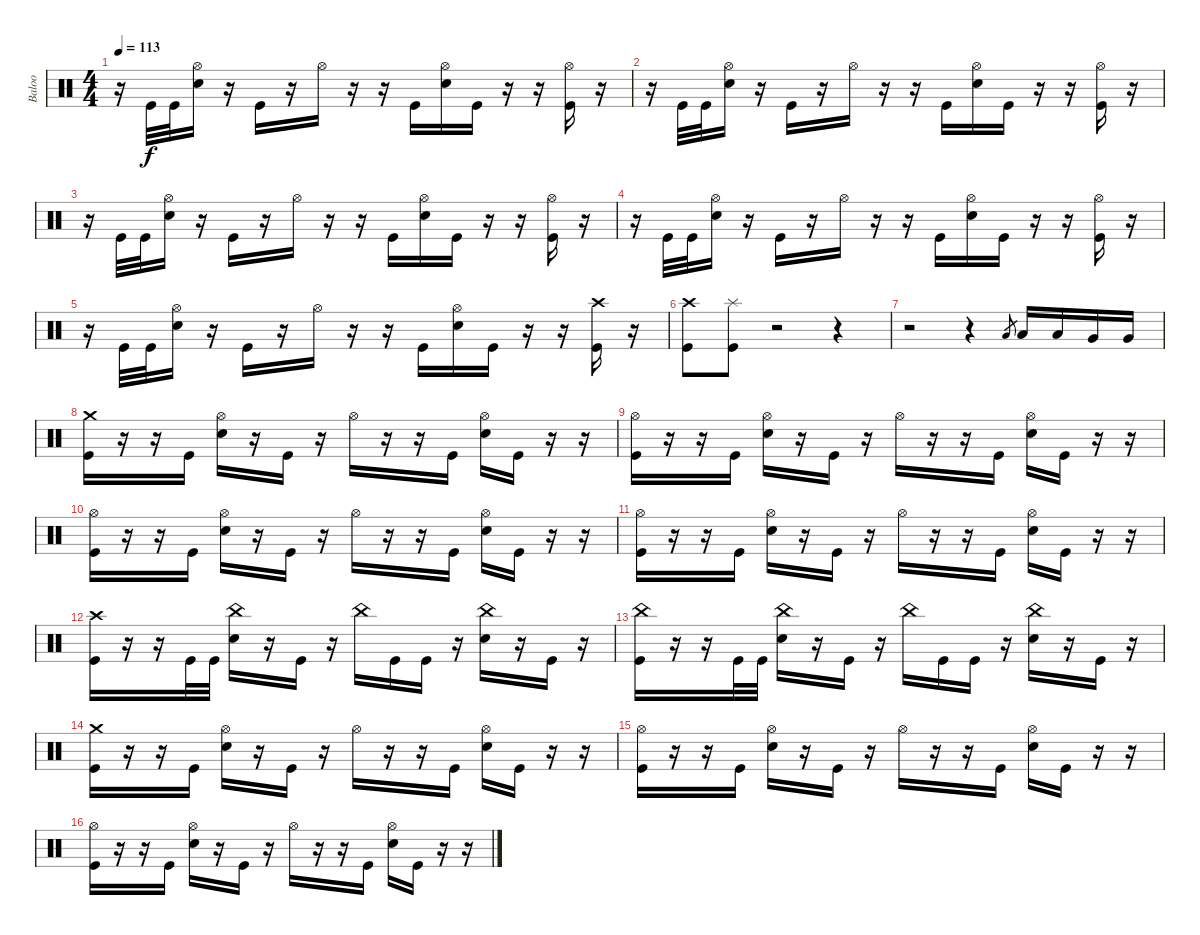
\track ("Baloo" "Baloo") {instrument percussion}
\staff {score}
\articulation defaults
\ts (4 4)
\tempo 113
\clef neutral
\ks c
r.16{dy f} "Kick (hit)".32 "Kick (hit)".32 ("Hi-Hat (open)" "Electric Snare (hit)").16 r.16 "Kick (hit)".16 r.16 "Hi-Hat (open)".16 r.16 r.16 "Kick (hit)".16 ("Hi-Hat (open)" "Electric Snare (hit)").16 "Kick (hit)".16 r.16 r.16 ("Hi-Hat (open)" "Kick (hit)").16 r.16 |
r.16 "Kick (hit)".32 "Kick (hit)".32 ("Hi-Hat (open)" "Electric Snare (hit)").16 r.16 "Kick (hit)".16 r.16 "Hi-Hat (open)".16 r.16 r.16 "Kick (hit)".16 ("Hi-Hat (open)" "Electric Snare (hit)").16 "Kick (hit)".16 r.16 r.16 ("Hi-Hat (open)" "Kick (hit)").16 r.16 |
r.16 "Kick (hit)".32 "Kick (hit)".32 ("Hi-Hat (open)" "Electric Snare (hit)").16 r.16 "Kick (hit)".16 r.16 "Hi-Hat (open)".16 r.16 r.16 "Kick (hit)".16 ("Hi-Hat (open)" "Electric Snare (hit)").16 "Kick (hit)".16 r.16 r.16 ("Hi-Hat (open)" "Kick (hit)").16 r.16 |
r.16 "Kick (hit)".32 "Kick (hit)".32 ("Hi-Hat (open)" "Electric Snare (hit)").16 r.16 "Kick (hit)".16 r.16 "Hi-Hat (open)".16 r.16 r.16 "Kick (hit)".16 ("Hi-Hat (open)" "Electric Snare (hit)").16 "Kick (hit)".16 r.16 r.16 ("Hi-Hat (open)" "Kick (hit)").16 r.16 |
r.16 "Kick (hit)".32 "Kick (hit)".32 ("Hi-Hat (open)" "Electric Snare (hit)").16 r.16 "Kick (hit)".16 r.16 "Hi-Hat (open)".16 r.16 r.16 "Kick (hit)".16 ("Hi-Hat (open)" "Electric Snare (hit)").16 "Kick (hit)".16 r.16 r.16 ("Crash high (hit)" "Kick (hit)").16 r.16 |
("Crash high (hit)" "Kick (hit)").8 ("Splash (hit)" "Kick (hit)").8 r.2 r.4 |
r.2 r.4 "Low Tom (hit)".8{gr} "Low Tom (hit)".16 "Low Tom (hit)".16 "Very Low Tom (hit)".16 "Very Low Tom (hit)".16 |
("Crash medium (hit)" "Kick (hit)").16 r.16 r.16 "Kick (hit)".16 ("Hi-Hat (open)" "Electric Snare (hit)").16 r.16 "Kick (hit)".16 r.16 "Hi-Hat (open)".16 r.16 r.16 "Kick (hit)".16 ("Hi-Hat (open)" "Electric Snare (hit)").16 "Kick (hit)".16 r.16 r.16 |
("Hi-Hat (open)" "Kick (hit)").16 r.16 r.16 "Kick (hit)".16 ("Hi-Hat (open)" "Electric Snare (hit)").16 r.16 "Kick (hit)".16 r.16 "Hi-Hat (open)".16 r.16 r.16 "Kick (hit)".16 ("Hi-Hat (open)" "Electric Snare (hit)").16 "Kick (hit)".16 r.16 r.16 |
("Hi-Hat (open)" "Kick (hit)").16 r.16 r.16 "Kick (hit)".16 ("Hi-Hat (open)" "Electric Snare (hit)").16 r.16 "Kick (hit)".16 r.16 "Hi-Hat (open)".16 r.16 r.16 "Kick (hit)".16 ("Hi-Hat (open)" "Electric Snare (hit)").16 "Kick (hit)".16 r.16 r.16 |
("Hi-Hat (open)" "Kick (hit)").16 r.16 r.16 "Kick (hit)".16 ("Hi-Hat (open)" "Electric Snare (hit)").16 r.16 "Kick (hit)".16 r.16 "Hi-Hat (open)".16 r.16 r.16 "Kick (hit)".16 ("Hi-Hat (open)" "Electric Snare (hit)").16 "Kick (hit)".16 r.16 r.16 |
("Crash high (hit)" "Kick (hit)").16 r.16 r.16 "Kick (hit)".32 "Kick (hit)".32 ("China (hit)" "Electric Snare (hit)").16 r.16 "Kick (hit)".16 r.16 "China (hit)".16 "Kick (hit)".16 "Kick (hit)".16 r.16 ("China (hit)" "Electric Snare (hit)").16 r.16 "Kick (hit)".16 r.16 |
("China (hit)" "Kick (hit)").16 r.16 r.16 "Kick (hit)".32 "Kick (hit)".32 ("China (hit)" "Electric Snare (hit)").16 r.16 "Kick (hit)".16 r.16 "China (hit)".16 "Kick (hit)".16 "Kick (hit)".16 r.16 ("China (hit)" "Electric Snare (hit)").16 r.16 "Kick (hit)".16 r.16 |
("Crash medium (hit)" "Kick (hit)").16 r.16 r.16 "Kick (hit)".16 ("Hi-Hat (open)" "Electric Snare (hit)").16 r.16 "Kick (hit)".16 r.16 "Hi-Hat (open)".16 r.16 r.16 "Kick (hit)".16 ("Hi-Hat (open)" "Electric Snare (hit)").16 "Kick (hit)".16 r.16 r.16 |
("Hi-Hat (open)" "Kick (hit)").16 r.16 r.16 "Kick (hit)".16 ("Hi-Hat (open)" "Electric Snare (hit)").16 r.16 "Kick (hit)".16 r.16 "Hi-Hat (open)".16 r.16 r.16 "Kick (hit)".16 ("Hi-Hat (open)" "Electric Snare (hit)").16 "Kick (hit)".16 r.16 r.16 |
("Hi-Hat (open)" "Kick (hit)").16 r.16 r.16 "Kick (hit)".16 ("Hi-Hat (open)" "Electric Snare (hit)").16 r.16 "Kick (hit)".16 r.16 "Hi-Hat (open)".16 r.16 r.16 "Kick (hit)".16 ("Hi-Hat (open)" "Electric Snare (hit)").16 "Kick (hit)".16 r.16 r.16
